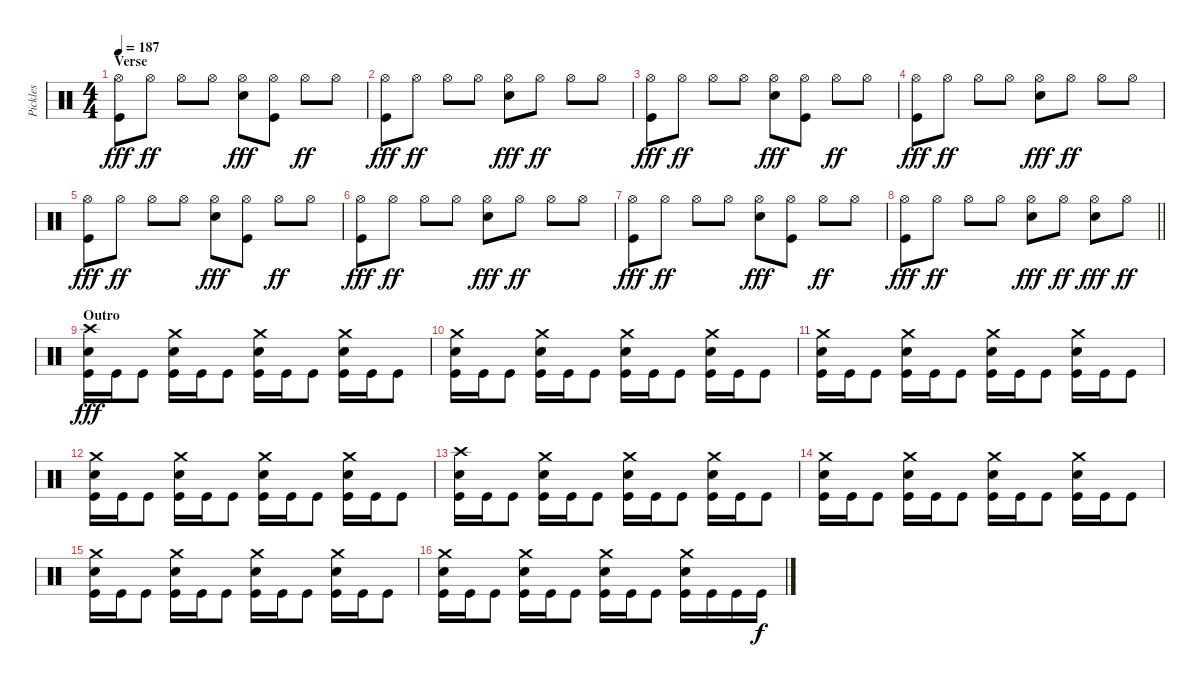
\track ("Pickles" "Pickles") {instrument percussion}
\staff {score}
\articulation defaults
\ts (4 4)
\section ("" "Verse")
\tempo 187
\clef neutral
\ks c
("Hi-Hat (open)" "Kick (hit)").8{dy fff} "Hi-Hat (open)".8{dy ff} "Hi-Hat (open)".8 "Hi-Hat (open)".8 ("Hi-Hat (open)" "Snare (hit) 2").8{dy fff} ("Hi-Hat (open)" "Kick (hit)").8 "Hi-Hat (open)".8{dy ff} "Hi-Hat (open)".8 |
("Hi-Hat (open)" "Kick (hit)").8{dy fff} "Hi-Hat (open)".8{dy ff} "Hi-Hat (open)".8 "Hi-Hat (open)".8 ("Hi-Hat (open)" "Snare (hit) 2").8{dy fff} "Hi-Hat (open)".8{dy ff} "Hi-Hat (open)".8 "Hi-Hat (open)".8 |
("Hi-Hat (open)" "Kick (hit)").8{dy fff} "Hi-Hat (open)".8{dy ff} "Hi-Hat (open)".8 "Hi-Hat (open)".8 ("Hi-Hat (open)" "Snare (hit) 2").8{dy fff} ("Hi-Hat (open)" "Kick (hit)").8 "Hi-Hat (open)".8{dy ff} "Hi-Hat (open)".8 |
("Hi-Hat (open)" "Kick (hit)").8{dy fff} "Hi-Hat (open)".8{dy ff} "Hi-Hat (open)".8 "Hi-Hat (open)".8 ("Hi-Hat (open)" "Snare (hit) 2").8{dy fff} "Hi-Hat (open)".8{dy ff} "Hi-Hat (open)".8 "Hi-Hat (open)".8 |
("Hi-Hat (open)" "Kick (hit)").8{dy fff} "Hi-Hat (open)".8{dy ff} "Hi-Hat (open)".8 "Hi-Hat (open)".8 ("Hi-Hat (open)" "Snare (hit) 2").8{dy fff} ("Hi-Hat (open)" "Kick (hit)").8 "Hi-Hat (open)".8{dy ff} "Hi-Hat (open)".8 |
("Hi-Hat (open)" "Kick (hit)").8{dy fff} "Hi-Hat (open)".8{dy ff} "Hi-Hat (open)".8 "Hi-Hat (open)".8 ("Hi-Hat (open)" "Snare (hit) 2").8{dy fff} "Hi-Hat (open)".8{dy ff} "Hi-Hat (open)".8 "Hi-Hat (open)".8 |
("Hi-Hat (open)" "Kick (hit)").8{dy fff} "Hi-Hat (open)".8{dy ff} "Hi-Hat (open)".8 "Hi-Hat (open)".8 ("Hi-Hat (open)" "Snare (hit) 2").8{dy fff} ("Hi-Hat (open)" "Kick (hit)").8 "Hi-Hat (open)".8{dy ff} "Hi-Hat (open)".8 |
\barLineRight lightlight
("Hi-Hat (open)" "Kick (hit)").8{dy fff} "Hi-Hat (open)".8{dy ff} "Hi-Hat (open)".8 "Hi-Hat (open)".8 ("Hi-Hat (open)" "Snare (hit) 2").8{dy fff} "Hi-Hat (open)".8{dy ff} ("Hi-Hat (open)" "Snare (hit) 2").8{dy fff} "Hi-Hat (open)".8{dy ff} |
\section ("" "Outro")
("Crash high (hit)" "Snare (hit) 2" "Kick (hit)").16{dy fff} "Kick (hit)".16 "Kick (hit)".8 ("Crash medium (hit)" "Snare (hit) 2" "Kick (hit)").16 "Kick (hit)".16 "Kick (hit)".8 ("Crash medium (hit)" "Snare (hit) 2" "Kick (hit)").16 "Kick (hit)".16 "Kick (hit)".8 ("Crash medium (hit)" "Snare (hit) 2" "Kick (hit)").16 "Kick (hit)".16 "Kick (hit)".8 |
("Crash medium (hit)" "Snare (hit) 2" "Kick (hit)").16 "Kick (hit)".16 "Kick (hit)".8 ("Crash medium (hit)" "Snare (hit) 2" "Kick (hit)").16 "Kick (hit)".16 "Kick (hit)".8 ("Crash medium (hit)" "Snare (hit) 2" "Kick (hit)").16 "Kick (hit)".16 "Kick (hit)".8 ("Crash medium (hit)" "Snare (hit) 2" "Kick (hit)").16 "Kick (hit)".16 "Kick (hit)".8 |
("Crash medium (hit)" "Snare (hit) 2" "Kick (hit)").16 "Kick (hit)".16 "Kick (hit)".8 ("Crash medium (hit)" "Snare (hit) 2" "Kick (hit)").16 "Kick (hit)".16 "Kick (hit)".8 ("Crash medium (hit)" "Snare (hit) 2" "Kick (hit)").16 "Kick (hit)".16 "Kick (hit)".8 ("Crash medium (hit)" "Snare (hit) 2" "Kick (hit)").16 "Kick (hit)".16 "Kick (hit)".8 |
("Crash medium (hit)" "Snare (hit) 2" "Kick (hit)").16 "Kick (hit)".16 "Kick (hit)".8 ("Crash medium (hit)" "Snare (hit) 2" "Kick (hit)").16 "Kick (hit)".16 "Kick (hit)".8 ("Crash medium (hit)" "Snare (hit) 2" "Kick (hit)").16 "Kick (hit)".16 "Kick (hit)".8 ("Crash medium (hit)" "Snare (hit) 2" "Kick (hit)").16 "Kick (hit)".16 "Kick (hit)".8 |
("Crash high (hit)" "Snare (hit) 2" "Kick (hit)").16 "Kick (hit)".16 "Kick (hit)".8 ("Crash medium (hit)" "Snare (hit) 2" "Kick (hit)").16 "Kick (hit)".16 "Kick (hit)".8 ("Crash medium (hit)" "Snare (hit) 2" "Kick (hit)").16 "Kick (hit)".16 "Kick (hit)".8 ("Crash medium (hit)" "Snare (hit) 2" "Kick (hit)").16 "Kick (hit)".16 "Kick (hit)".8 |
("Crash medium (hit)" "Snare (hit) 2" "Kick (hit)").16 "Kick (hit)".16 "Kick (hit)".8 ("Crash medium (hit)" "Snare (hit) 2" "Kick (hit)").16 "Kick (hit)".16 "Kick (hit)".8 ("Crash medium (hit)" "Snare (hit) 2" "Kick (hit)").16 "Kick (hit)".16 "Kick (hit)".8 ("Crash medium (hit)" "Snare (hit) 2" "Kick (hit)").16 "Kick (hit)".16 "Kick (hit)".8 |
("Crash medium (hit)" "Snare (hit) 2" "Kick (hit)").16 "Kick (hit)".16 "Kick (hit)".8 ("Crash medium (hit)" "Snare (hit) 2" "Kick (hit)").16 "Kick (hit)".16 "Kick (hit)".8 ("Crash medium (hit)" "Snare (hit) 2" "Kick (hit)").16 "Kick (hit)".16 "Kick (hit)".8 ("Crash medium (hit)" "Snare (hit) 2" "Kick (hit)").16 "Kick (hit)".16 "Kick (hit)".8 |
("Crash medium (hit)" "Snare (hit) 2" "Kick (hit)").16 "Kick (hit)".16 "Kick (hit)".8 ("Crash medium (hit)" "Snare (hit) 2" "Kick (hit)").16 "Kick (hit)".16 "Kick (hit)".8 ("Crash medium (hit)" "Snare (hit) 2" "Kick (hit)").16 "Kick (hit)".16 "Kick (hit)".8 ("Crash medium (hit)" "Snare (hit) 2" "Kick (hit)").16 "Kick (hit)".16 "Kick (hit)".16 "Kick (hit)".16{dy f}
